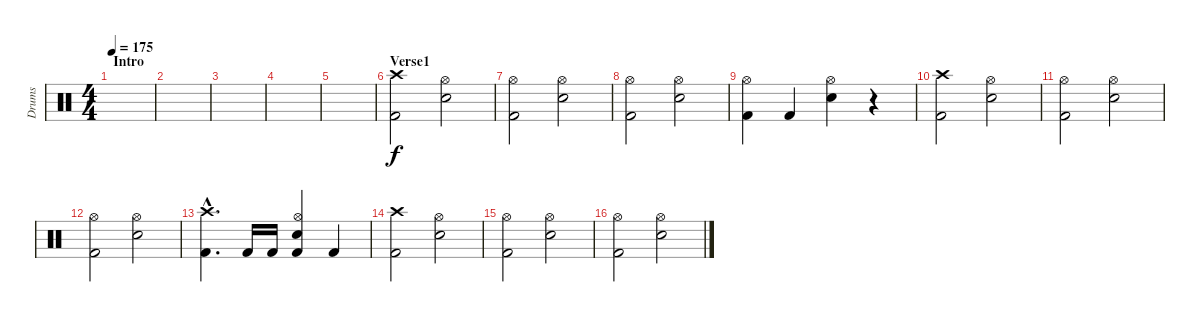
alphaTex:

\track ("Drums" "Drums") {instrument percussion}
\staff {score}
\articulation defaults
\ts (4 4)
\section ("" "Intro")
\tempo 175
\clef neutral
\ks c
|
|
|
|
|
\section ("" "Verse1")
("Crash high (hit)" "Kick (hit) 2").2 ("Hi-Hat (open)" "Snare (hit) 2").2 |
("Hi-Hat (open)" "Kick (hit) 2").2 ("Hi-Hat (open)" "Snare (hit) 2").2 |
("Hi-Hat (open)" "Kick (hit) 2").2 ("Hi-Hat (open)" "Snare (hit) 2").2 |
("Hi-Hat (open)" "Kick (hit) 2").4 "Kick (hit) 2".4 ("Hi-Hat (open)" "Snare (hit) 2").4 r.4 |
("Crash high (hit)" "Kick (hit) 2").2 ("Hi-Hat (open)" "Snare (hit) 2").2 |
("Hi-Hat (open)" "Kick (hit) 2").2 ("Hi-Hat (open)" "Snare (hit) 2").2 |
("Hi-Hat (open)" "Kick (hit) 2").2 ("Hi-Hat (open)" "Snare (hit) 2").2 |
("Crash high (hit)"{hac} "Kick (hit) 2"{hac}).4{d} "Kick (hit) 2".16 "Kick (hit) 2".16 ("Hi-Hat (open)" "Snare (hit) 2" "Kick (hit) 2").4 "Kick (hit) 2".4 |
("Crash high (hit)" "Kick (hit) 2").2 ("Hi-Hat (open)" "Snare (hit) 2").2 |
("Hi-Hat (open)" "Kick (hit) 2").2 ("Hi-Hat (open)" "Snare (hit) 2").2 |
("Hi-Hat (open)" "Kick (hit) 2").2 ("Hi-Hat (open)" "Snare (hit) 2").2
